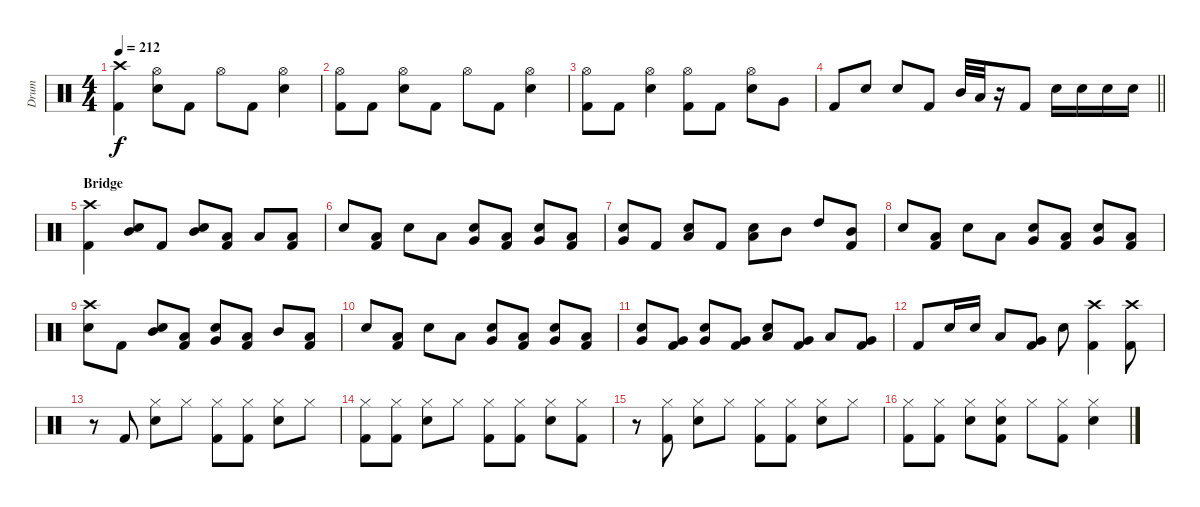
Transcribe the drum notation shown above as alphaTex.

\track ("Drum" "Drum") {instrument percussion}
\staff {score}
\articulation defaults
\ts (4 4)
\tempo 212
\clef neutral
\ks c
("Crash high (hit)" "Kick (hit) 2").4{dy f} ("Hi-Hat (open)" "Electric Snare (hit)").8 "Kick (hit) 2".8 "Hi-Hat (open)".8 "Kick (hit) 2".8 ("Hi-Hat (open)" "Electric Snare (hit)").4 |
("Hi-Hat (open)" "Kick (hit) 2").8 "Kick (hit) 2".8 ("Hi-Hat (open)" "Electric Snare (hit)").8 "Kick (hit) 2".8 "Hi-Hat (open)".8 "Kick (hit) 2".8 ("Hi-Hat (open)" "Electric Snare (hit)").4 |
("Hi-Hat (open)" "Kick (hit) 2").8 "Kick (hit) 2".8 ("Hi-Hat (open)" "Electric Snare (hit)").4 ("Hi-Hat (open)" "Kick (hit) 2").8 "Kick (hit) 2".8 ("Hi-Hat (open)" "Electric Snare (hit)").8 "Very Low Tom (hit)".8 |
\barLineRight lightlight "Kick (hit) 2".8 "Electric Snare (hit)".8 "Electric Snare (hit)".8 "Kick (hit) 2".8 "Mid Tom (hit)".32 "Low Tom (hit)".32
r.16 "Kick (hit) 2".8 "Electric Snare (hit)".16 "Electric Snare (hit)".16 "Electric Snare (hit)".16 "Electric Snare (hit)".16 |
\section ("" "Bridge")
("Crash high (hit)" "Kick (hit) 2").4 ("Mid Tom (hit)" "Electric Snare (hit)").8 "Kick (hit) 2".8 ("Mid Tom (hit)" "Electric Snare (hit)").8 ("Low Tom (hit)" "Kick (hit) 2").8 "Low Tom (hit)".8 ("Low Tom (hit)" "Kick (hit) 2").8 |
"Electric Snare (hit)".8 ("Low Tom (hit)" "Kick (hit) 2").8 "Electric Snare (hit)".8 "Low Tom (hit)".8 ("Very Low Tom (hit)" "Electric Snare (hit)").8 ("Low Tom (hit)" "Kick (hit) 2").8 ("Very Low Tom (hit)" "Electric Snare (hit)").8 ("Low Tom (hit)" "Kick (hit) 2").8 |
("Very Low Tom (hit)" "Electric Snare (hit)").8 "Kick (hit) 2".8 ("Low Tom (hit)" "Electric Snare (hit)").8 "Kick (hit) 2".8 ("Low Tom (hit)" "Electric Snare (hit)").8 "Mid Tom (hit)".8 "High Tom (hit)".8 ("Mid Tom (hit)" "Kick (hit) 2").8 |
"Electric Snare (hit)".8 ("Low Tom (hit)" "Kick (hit) 2").8 "Electric Snare (hit)".8 "Low Tom (hit)".8 ("Very Low Tom (hit)" "Electric Snare (hit)").8 ("Low Tom (hit)" "Kick (hit) 2").8 ("Very Low Tom (hit)" "Electric Snare (hit)").8 ("Low Tom (hit)" "Kick (hit) 2").8 |
("Crash high (hit)" "Electric Snare (hit)").8 "Kick (hit) 2".8 ("Mid Tom (hit)" "Electric Snare (hit)").8 ("Low Tom (hit)" "Kick (hit) 2").8 ("Very Low Tom (hit)" "Electric Snare (hit)").8 ("Low Tom (hit)" "Kick (hit) 2").8 "Mid Tom (hit)".8 ("Low Tom (hit)" "Kick (hit) 2").8 |
"Electric Snare (hit)".8 ("Low Tom (hit)" "Kick (hit) 2").8 "Electric Snare (hit)".8 "Low Tom (hit)".8 ("Very Low Tom (hit)" "Electric Snare (hit)").8 ("Low Tom (hit)" "Kick (hit) 2").8 ("Very Low Tom (hit)" "Electric Snare (hit)").8 ("Low Tom (hit)" "Kick (hit) 2").8 |
("Very Low Tom (hit)" "Electric Snare (hit)").8 ("Very Low Tom (hit)" "Kick (hit) 2").8 ("Very Low Tom (hit)" "Electric Snare (hit)").8 ("Very Low Tom (hit)" "Kick (hit) 2").8 ("Low Tom (hit)" "Electric Snare (hit)").8 ("Very Low Tom (hit)" "Kick (hit) 2").8 "Low Tom (hit)".8 ("Very Low Tom (hit)" "Kick (hit) 2").8 |
"Kick (hit) 2".8 "Electric Snare (hit)".16 "Electric Snare (hit)".16 "Low Tom (hit)".8 ("Very Low Tom (hit)" "Kick (hit) 2").8 "Electric Snare (hit)".8 ("Crash high (hit)" "Kick (hit) 2").4 ("Crash high (hit)" "Kick (hit) 2").8 |
r.8 "Kick (hit) 2".8 ("Hi-Hat (closed)" "Electric Snare (hit)").8 "Hi-Hat (closed)".8 ("Hi-Hat (closed)" "Kick (hit) 2").8 ("Hi-Hat (closed)" "Kick (hit) 2").8 ("Hi-Hat (closed)" "Electric Snare (hit)").8 "Hi-Hat (closed)".8 |
("Hi-Hat (closed)" "Kick (hit) 2").8 ("Hi-Hat (closed)" "Kick (hit) 2").8 ("Hi-Hat (closed)" "Electric Snare (hit)").8 "Hi-Hat (closed)".8 ("Hi-Hat (closed)" "Kick (hit) 2").8 ("Hi-Hat (closed)" "Kick (hit) 2").8 ("Hi-Hat (closed)" "Electric Snare (hit)").8 ("Hi-Hat (closed)" "Kick (hit) 2").8 |
r.8 ("Hi-Hat (closed)" "Kick (hit) 2").8 ("Hi-Hat (closed)" "Electric Snare (hit)").8 "Hi-Hat (closed)".8 ("Hi-Hat (closed)" "Kick (hit) 2").8 ("Hi-Hat (closed)" "Kick (hit) 2").8 ("Hi-Hat (closed)" "Electric Snare (hit)").8 "Hi-Hat (closed)".8 |
("Hi-Hat (closed)" "Kick (hit) 2").8 ("Hi-Hat (closed)" "Kick (hit) 2").8 ("Hi-Hat (closed)" "Electric Snare (hit)").8 ("Hi-Hat (closed)" "Electric Snare (hit)" "Kick (hit) 2").8 "Hi-Hat (closed)".8 ("Hi-Hat (closed)" "Kick (hit) 2").8 ("Hi-Hat (closed)" "Electric Snare (hit)").4
